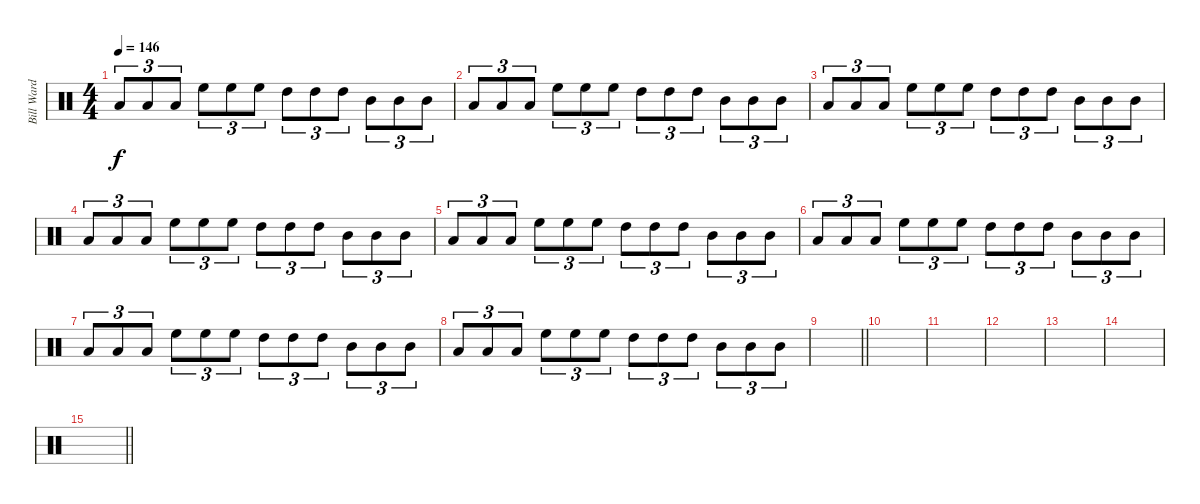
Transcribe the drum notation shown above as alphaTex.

\track ("Bill Ward - Drum Fills" "Bill Ward ") {instrument percussion}
\staff {score}
\articulation defaults
\ts (4 4)
\tempo 146
\clef neutral
\ks c "Low Tom (hit)".8{tu (3 2) dy f} "Low Tom (hit)".8{tu (3 2)} "Low Tom (hit)".8{tu (3 2)} "High Floor Tom (hit)".8{tu (3 2)} "High Floor Tom (hit)".8{tu (3 2)} "High Floor Tom (hit)".8{tu (3 2)} "High Tom (hit)".8{tu (3 2)} "High Tom (hit)".8{tu (3 2)} "High Tom (hit)".8{tu (3 2)} "Mid Tom (hit)".8{tu (3 2)} "Mid Tom (hit)".8{tu (3 2)} "Mid Tom (hit)".8{tu (3 2)}
|
"Low Tom (hit)".8{tu (3 2)} "Low Tom (hit)".8{tu (3 2)} "Low Tom (hit)".8{tu (3 2)} "High Floor Tom (hit)".8{tu (3 2)} "High Floor Tom (hit)".8{tu (3 2)} "High Floor Tom (hit)".8{tu (3 2)} "High Tom (hit)".8{tu (3 2)} "High Tom (hit)".8{tu (3 2)} "High Tom (hit)".8{tu (3 2)} "Mid Tom (hit)".8{tu (3 2)} "Mid Tom (hit)".8{tu (3 2)} "Mid Tom (hit)".8{tu (3 2)} |
"Low Tom (hit)".8{tu (3 2)} "Low Tom (hit)".8{tu (3 2)} "Low Tom (hit)".8{tu (3 2)} "High Floor Tom (hit)".8{tu (3 2)} "High Floor Tom (hit)".8{tu (3 2)} "High Floor Tom (hit)".8{tu (3 2)} "High Tom (hit)".8{tu (3 2)} "High Tom (hit)".8{tu (3 2)} "High Tom (hit)".8{tu (3 2)} "Mid Tom (hit)".8{tu (3 2)} "Mid Tom (hit)".8{tu (3 2)} "Mid Tom (hit)".8{tu (3 2)} |
"Low Tom (hit)".8{tu (3 2)} "Low Tom (hit)".8{tu (3 2)} "Low Tom (hit)".8{tu (3 2)} "High Floor Tom (hit)".8{tu (3 2)} "High Floor Tom (hit)".8{tu (3 2)} "High Floor Tom (hit)".8{tu (3 2)} "High Tom (hit)".8{tu (3 2)} "High Tom (hit)".8{tu (3 2)} "High Tom (hit)".8{tu (3 2)} "Mid Tom (hit)".8{tu (3 2)} "Mid Tom (hit)".8{tu (3 2)} "Mid Tom (hit)".8{tu (3 2)} |
"Low Tom (hit)".8{tu (3 2)} "Low Tom (hit)".8{tu (3 2)} "Low Tom (hit)".8{tu (3 2)} "High Floor Tom (hit)".8{tu (3 2)} "High Floor Tom (hit)".8{tu (3 2)} "High Floor Tom (hit)".8{tu (3 2)} "High Tom (hit)".8{tu (3 2)} "High Tom (hit)".8{tu (3 2)} "High Tom (hit)".8{tu (3 2)} "Mid Tom (hit)".8{tu (3 2)} "Mid Tom (hit)".8{tu (3 2)} "Mid Tom (hit)".8{tu (3 2)} |
"Low Tom (hit)".8{tu (3 2)} "Low Tom (hit)".8{tu (3 2)} "Low Tom (hit)".8{tu (3 2)} "High Floor Tom (hit)".8{tu (3 2)} "High Floor Tom (hit)".8{tu (3 2)} "High Floor Tom (hit)".8{tu (3 2)} "High Tom (hit)".8{tu (3 2)} "High Tom (hit)".8{tu (3 2)} "High Tom (hit)".8{tu (3 2)} "Mid Tom (hit)".8{tu (3 2)} "Mid Tom (hit)".8{tu (3 2)} "Mid Tom (hit)".8{tu (3 2)} |
"Low Tom (hit)".8{tu (3 2)} "Low Tom (hit)".8{tu (3 2)} "Low Tom (hit)".8{tu (3 2)} "High Floor Tom (hit)".8{tu (3 2)} "High Floor Tom (hit)".8{tu (3 2)} "High Floor Tom (hit)".8{tu (3 2)} "High Tom (hit)".8{tu (3 2)} "High Tom (hit)".8{tu (3 2)} "High Tom (hit)".8{tu (3 2)} "Mid Tom (hit)".8{tu (3 2)} "Mid Tom (hit)".8{tu (3 2)} "Mid Tom (hit)".8{tu (3 2)} |
"Low Tom (hit)".8{tu (3 2)} "Low Tom (hit)".8{tu (3 2)} "Low Tom (hit)".8{tu (3 2)} "High Floor Tom (hit)".8{tu (3 2)} "High Floor Tom (hit)".8{tu (3 2)} "High Floor Tom (hit)".8{tu (3 2)} "High Tom (hit)".8{tu (3 2)} "High Tom (hit)".8{tu (3 2)} "High Tom (hit)".8{tu (3 2)} "Mid Tom (hit)".8{tu (3 2)} "Mid Tom (hit)".8{tu (3 2)} "Mid Tom (hit)".8{tu (3 2)} |
\barLineRight lightlight
|
|
|
|
|
|
\barLineRight lightlight
